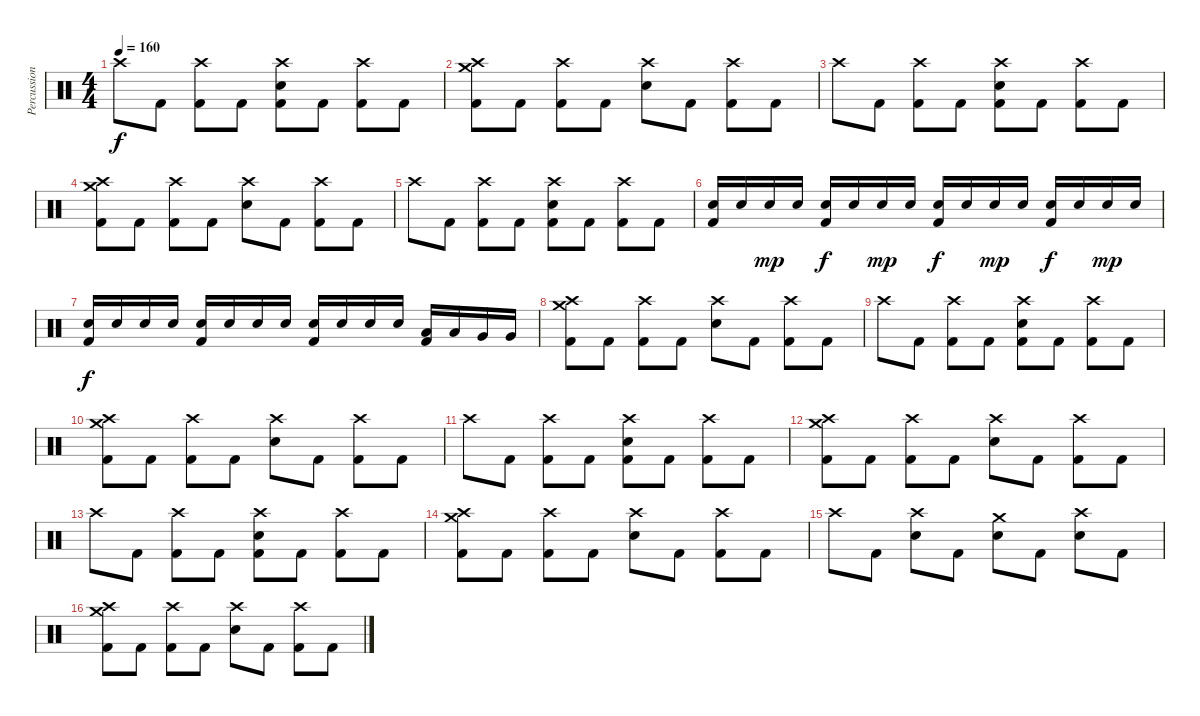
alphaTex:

\track ("Percussion" "Percussion") {instrument percussion}
\staff {score}
\articulation defaults
\ts (4 4)
\tempo 160
\clef neutral
\ks c "Crash high (hit)".8{dy f} "Kick (hit) 2".8
("Crash high (hit)" "Kick (hit) 2").8 "Kick (hit) 2".8 ("Crash high (hit)" "Electric Snare (hit)" "Kick (hit) 2").8 "Kick (hit) 2".8 ("Crash high (hit)" "Kick (hit) 2").8 "Kick (hit) 2".8 |
("Crash high (hit)" "Crash medium (hit)" "Kick (hit) 2").8 "Kick (hit) 2".8 ("Crash high (hit)" "Kick (hit) 2").8 "Kick (hit) 2".8 ("Crash high (hit)" "Electric Snare (hit)").8 "Kick (hit) 2".8 ("Crash high (hit)" "Kick (hit) 2").8 "Kick (hit) 2".8 |
"Crash high (hit)".8 "Kick (hit) 2".8 ("Crash high (hit)" "Kick (hit) 2").8 "Kick (hit) 2".8 ("Crash high (hit)" "Electric Snare (hit)" "Kick (hit) 2").8 "Kick (hit) 2".8 ("Crash high (hit)" "Kick (hit) 2").8 "Kick (hit) 2".8 |
("Crash high (hit)" "Crash medium (hit)" "Kick (hit) 2").8 "Kick (hit) 2".8 ("Crash high (hit)" "Kick (hit) 2").8 "Kick (hit) 2".8 ("Crash high (hit)" "Electric Snare (hit)").8 "Kick (hit) 2".8 ("Crash high (hit)" "Kick (hit) 2").8 "Kick (hit) 2".8 |
"Crash high (hit)".8 "Kick (hit) 2".8 ("Crash high (hit)" "Kick (hit) 2").8 "Kick (hit) 2".8 ("Crash high (hit)" "Electric Snare (hit)" "Kick (hit) 2").8 "Kick (hit) 2".8 ("Crash high (hit)" "Kick (hit) 2").8 "Kick (hit) 2".8 |
("Electric Snare (hit)" "Kick (hit) 2").16 "Electric Snare (hit)".16 "Electric Snare (hit)".16{dy mp} "Electric Snare (hit)".16 ("Electric Snare (hit)" "Kick (hit) 2").16{dy f} "Electric Snare (hit)".16 "Electric Snare (hit)".16{dy mp} "Electric Snare (hit)".16 ("Electric Snare (hit)" "Kick (hit) 2").16{dy f} "Electric Snare (hit)".16 "Electric Snare (hit)".16{dy mp} "Electric Snare (hit)".16 ("Electric Snare (hit)" "Kick (hit) 2").16{dy f} "Electric Snare (hit)".16 "Electric Snare (hit)".16{dy mp} "Electric Snare (hit)".16 |
("Electric Snare (hit)" "Kick (hit) 2").16{dy f} "Electric Snare (hit)".16 "Electric Snare (hit)".16 "Electric Snare (hit)".16 ("Electric Snare (hit)" "Kick (hit) 2").16 "Electric Snare (hit)".16 "Electric Snare (hit)".16 "Electric Snare (hit)".16 ("Electric Snare (hit)" "Kick (hit) 2").16 "Electric Snare (hit)".16 "Electric Snare (hit)".16 "Electric Snare (hit)".16 ("Low Tom (hit)" "Kick (hit) 2").16 "Low Tom (hit)".16 "Very Low Tom (hit)".16 "Very Low Tom (hit)".16 |
("Crash high (hit)" "Crash medium (hit)" "Kick (hit) 2").8 "Kick (hit) 2".8 ("Crash high (hit)" "Kick (hit) 2").8 "Kick (hit) 2".8 ("Crash high (hit)" "Electric Snare (hit)").8 "Kick (hit) 2".8 ("Crash high (hit)" "Kick (hit) 2").8 "Kick (hit) 2".8 |
"Crash high (hit)".8 "Kick (hit) 2".8 ("Crash high (hit)" "Kick (hit) 2").8 "Kick (hit) 2".8 ("Crash high (hit)" "Electric Snare (hit)" "Kick (hit) 2").8 "Kick (hit) 2".8 ("Crash high (hit)" "Kick (hit) 2").8 "Kick (hit) 2".8 |
("Crash high (hit)" "Crash medium (hit)" "Kick (hit) 2").8 "Kick (hit) 2".8 ("Crash high (hit)" "Kick (hit) 2").8 "Kick (hit) 2".8 ("Crash high (hit)" "Electric Snare (hit)").8 "Kick (hit) 2".8 ("Crash high (hit)" "Kick (hit) 2").8 "Kick (hit) 2".8 |
"Crash high (hit)".8 "Kick (hit) 2".8 ("Crash high (hit)" "Kick (hit) 2").8 "Kick (hit) 2".8 ("Crash high (hit)" "Electric Snare (hit)" "Kick (hit) 2").8 "Kick (hit) 2".8 ("Crash high (hit)" "Kick (hit) 2").8 "Kick (hit) 2".8 |
("Crash high (hit)" "Crash medium (hit)" "Kick (hit) 2").8 "Kick (hit) 2".8 ("Crash high (hit)" "Kick (hit) 2").8 "Kick (hit) 2".8 ("Crash high (hit)" "Electric Snare (hit)").8 "Kick (hit) 2".8 ("Crash high (hit)" "Kick (hit) 2").8 "Kick (hit) 2".8 |
"Crash high (hit)".8 "Kick (hit) 2".8 ("Crash high (hit)" "Kick (hit) 2").8 "Kick (hit) 2".8 ("Crash high (hit)" "Electric Snare (hit)" "Kick (hit) 2").8 "Kick (hit) 2".8 ("Crash high (hit)" "Kick (hit) 2").8 "Kick (hit) 2".8 |
("Crash high (hit)" "Crash medium (hit)" "Kick (hit) 2").8 "Kick (hit) 2".8 ("Crash high (hit)" "Kick (hit) 2").8 "Kick (hit) 2".8 ("Crash high (hit)" "Electric Snare (hit)").8 "Kick (hit) 2".8 ("Crash high (hit)" "Kick (hit) 2").8 "Kick (hit) 2".8 |
"Crash high (hit)".8 "Kick (hit) 2".8 ("Crash high (hit)" "Electric Snare (hit)").8 "Kick (hit) 2".8 ("Crash medium (hit)" "Electric Snare (hit)").8 "Kick (hit) 2".8 ("Crash high (hit)" "Electric Snare (hit)").8 "Kick (hit) 2".8 |
("Crash high (hit)" "Crash medium (hit)" "Kick (hit) 2").8 "Kick (hit) 2".8 ("Crash high (hit)" "Kick (hit) 2").8 "Kick (hit) 2".8 ("Crash high (hit)" "Electric Snare (hit)").8 "Kick (hit) 2".8 ("Crash high (hit)" "Kick (hit) 2").8 "Kick (hit) 2".8
